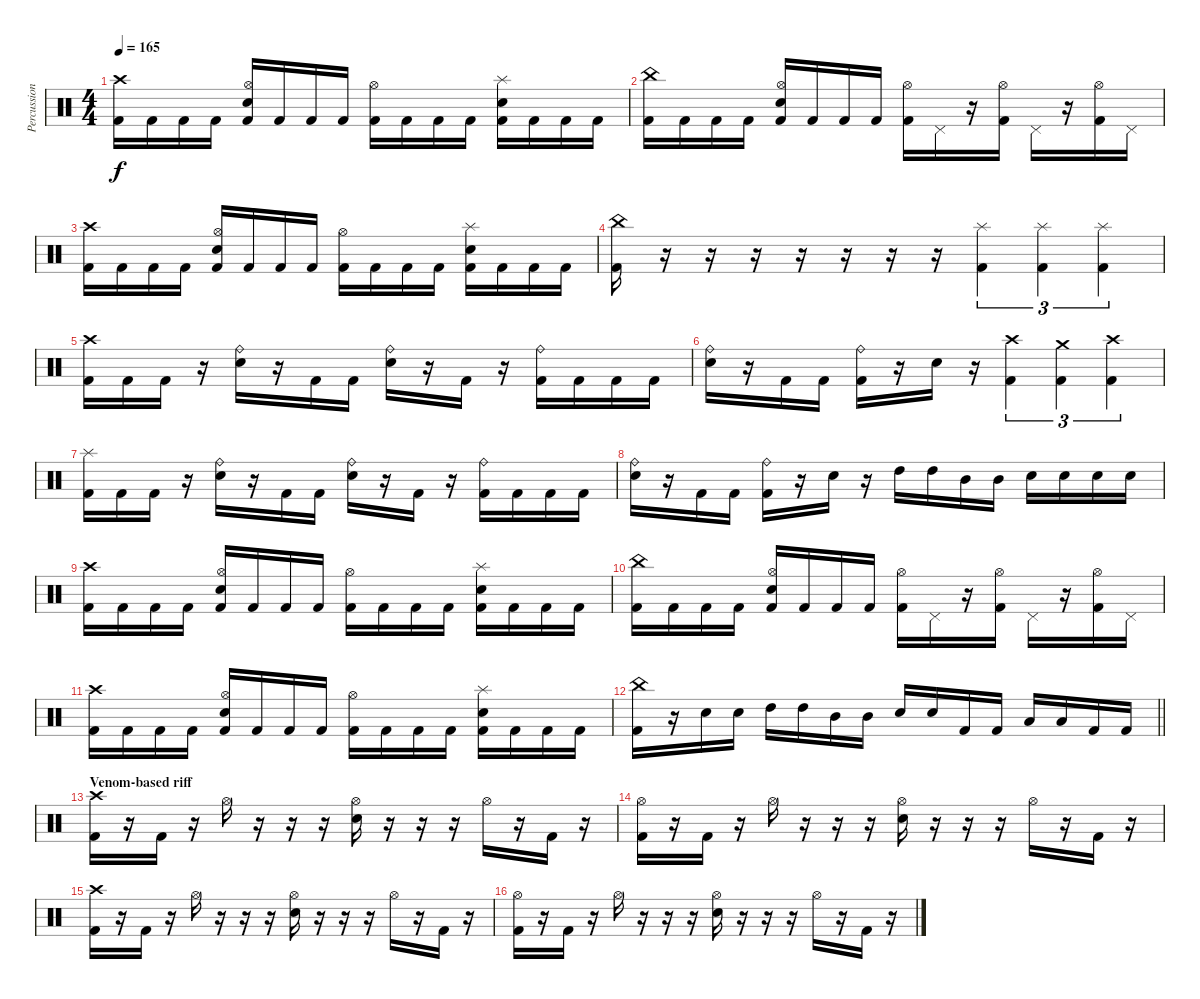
\track ("Percussion" "Percussion") {instrument percussion}
\staff {score}
\articulation defaults
\ts (4 4)
\tempo 165
\clef neutral
\ks c
("Crash high (hit)" "Kick (hit) 2").16{dy f} "Kick (hit) 2".16 "Kick (hit) 2".16 "Kick (hit) 2".16 ("Hi-Hat (open)" "Snare (hit) 2" "Kick (hit) 2").16 "Kick (hit) 2".16 "Kick (hit) 2".16 "Kick (hit) 2".16 ("Hi-Hat (open)" "Kick (hit) 2").16 "Kick (hit) 2".16 "Kick (hit) 2".16 "Kick (hit) 2".16 ("Splash (hit)" "Snare (hit) 2" "Kick (hit) 2").16 "Kick (hit) 2".16 "Kick (hit) 2".16 "Kick (hit) 2".16 |
("China (hit)" "Kick (hit) 2").16 "Kick (hit) 2".16 "Kick (hit) 2".16 "Kick (hit) 2".16 ("Hi-Hat (open)" "Snare (hit) 2" "Kick (hit) 2").16 "Kick (hit) 2".16 "Kick (hit) 2".16 "Kick (hit) 2".16 ("Hi-Hat (open)" "Kick (hit) 2").16 "Pedal Hi-Hat (hit)".16 r.16 ("Hi-Hat (open)" "Kick (hit) 2").16 "Pedal Hi-Hat (hit)".16 r.16 ("Hi-Hat (open)" "Kick (hit) 2").16 "Pedal Hi-Hat (hit)".16 |
("Crash high (hit)" "Kick (hit) 2").16 "Kick (hit) 2".16 "Kick (hit) 2".16 "Kick (hit) 2".16 ("Hi-Hat (open)" "Snare (hit) 2" "Kick (hit) 2").16 "Kick (hit) 2".16 "Kick (hit) 2".16 "Kick (hit) 2".16 ("Hi-Hat (open)" "Kick (hit) 2").16 "Kick (hit) 2".16 "Kick (hit) 2".16 "Kick (hit) 2".16 ("Splash (hit)" "Snare (hit) 2" "Kick (hit) 2").16 "Kick (hit) 2".16 "Kick (hit) 2".16 "Kick (hit) 2".16 |
("China (hit)" "Kick (hit) 2").16 r.16 r.16 r.16 r.16 r.16 r.16 r.16 ("Splash (hit)" "Kick (hit) 2").4{tu (3 2)} ("Splash (hit)" "Kick (hit) 2").4{tu (3 2)} ("Splash (hit)" "Kick (hit) 2").4{tu (3 2)} |
("Crash high (hit)" "Kick (hit) 2").16 "Kick (hit) 2".16 "Kick (hit) 2".16 r.16 ("Ride (bell)" "Snare (hit) 2").16 r.16 "Kick (hit) 2".16 "Kick (hit) 2".16 ("Ride (bell)" "Snare (hit) 2").16 r.16 "Kick (hit) 2".16 r.16 ("Ride (bell)" "Kick (hit) 2").16 "Kick (hit) 2".16 "Kick (hit) 2".16 "Kick (hit) 2".16 |
("Ride (bell)" "Snare (hit) 2").16 r.16 "Kick (hit) 2".16 "Kick (hit) 2".16 ("Ride (bell)" "Kick (hit) 2").16 r.16 "Snare (hit) 2".16 r.16 ("Crash high (hit)" "Kick (hit) 2").4{tu (3 2)} ("Crash medium (hit)" "Kick (hit) 2").4{tu (3 2)} ("Crash high (hit)" "Kick (hit) 2").4{tu (3 2)} |
("Splash (hit)" "Kick (hit) 2").16 "Kick (hit) 2".16 "Kick (hit) 2".16 r.16 ("Ride (bell)" "Snare (hit) 2").16 r.16 "Kick (hit) 2".16 "Kick (hit) 2".16 ("Ride (bell)" "Snare (hit) 2").16 r.16 "Kick (hit) 2".16 r.16 ("Ride (bell)" "Kick (hit) 2").16 "Kick (hit) 2".16 "Kick (hit) 2".16 "Kick (hit) 2".16 |
("Ride (bell)" "Snare (hit) 2").16 r.16 "Kick (hit) 2".16 "Kick (hit) 2".16 ("Ride (bell)" "Kick (hit) 2").16 r.16 "Snare (hit) 2".16 r.16 "High Tom (hit)".16 "High Tom (hit)".16 "Mid Tom (hit)".16 "Mid Tom (hit)".16 "Snare (hit) 2".16 "Snare (hit) 2".16 "Snare (hit) 2".16 "Snare (hit) 2".16 |
("Crash high (hit)" "Kick (hit) 2").16 "Kick (hit) 2".16 "Kick (hit) 2".16 "Kick (hit) 2".16 ("Hi-Hat (open)" "Snare (hit) 2" "Kick (hit) 2").16 "Kick (hit) 2".16 "Kick (hit) 2".16 "Kick (hit) 2".16 ("Hi-Hat (open)" "Kick (hit) 2").16 "Kick (hit) 2".16 "Kick (hit) 2".16 "Kick (hit) 2".16 ("Splash (hit)" "Snare (hit) 2" "Kick (hit) 2").16 "Kick (hit) 2".16 "Kick (hit) 2".16 "Kick (hit) 2".16 |
("China (hit)" "Kick (hit) 2").16 "Kick (hit) 2".16 "Kick (hit) 2".16 "Kick (hit) 2".16 ("Hi-Hat (open)" "Snare (hit) 2" "Kick (hit) 2").16 "Kick (hit) 2".16 "Kick (hit) 2".16 "Kick (hit) 2".16 ("Hi-Hat (open)" "Kick (hit) 2").16 "Pedal Hi-Hat (hit)".16 r.16 ("Hi-Hat (open)" "Kick (hit) 2").16 "Pedal Hi-Hat (hit)".16 r.16 ("Hi-Hat (open)" "Kick (hit) 2").16 "Pedal Hi-Hat (hit)".16 |
("Crash high (hit)" "Kick (hit) 2").16 "Kick (hit) 2".16 "Kick (hit) 2".16 "Kick (hit) 2".16 ("Hi-Hat (open)" "Snare (hit) 2" "Kick (hit) 2").16 "Kick (hit) 2".16 "Kick (hit) 2".16 "Kick (hit) 2".16 ("Hi-Hat (open)" "Kick (hit) 2").16 "Kick (hit) 2".16 "Kick (hit) 2".16 "Kick (hit) 2".16 ("Splash (hit)" "Snare (hit) 2" "Kick (hit) 2").16 "Kick (hit) 2".16 "Kick (hit) 2".16 "Kick (hit) 2".16 |
\barLineRight lightlight
("China (hit)" "Kick (hit) 2").16 r.16 "Snare (hit) 2".16 "Snare (hit) 2".16 "High Tom (hit)".16 "High Tom (hit)".16 "Mid Tom (hit)".16 "Mid Tom (hit)".16 "Snare (hit) 2".16 "Snare (hit) 2".16 "Kick (hit) 2".16 "Kick (hit) 2".16 "Low Tom (hit)".16 "Low Tom (hit)".16 "Kick (hit) 2".16 "Kick (hit) 2".16 |
\section ("" "Venom-based riff")
("Crash high (hit)" "Kick (hit) 2").16 r.16 "Kick (hit) 2".16 r.16 "Hi-Hat (open)".16 r.16 r.16 r.16 ("Hi-Hat (open)" "Snare (hit) 2").16 r.16 r.16 r.16 "Hi-Hat (open)".16 r.16 "Kick (hit) 2".16 r.16 |
("Hi-Hat (open)" "Kick (hit) 2").16 r.16 "Kick (hit) 2".16 r.16 "Hi-Hat (open)".16 r.16 r.16 r.16 ("Hi-Hat (open)" "Snare (hit) 2").16 r.16 r.16 r.16 "Hi-Hat (open)".16 r.16 "Kick (hit) 2".16 r.16 |
("Crash high (hit)" "Kick (hit) 2").16 r.16 "Kick (hit) 2".16 r.16 "Hi-Hat (open)".16 r.16 r.16 r.16 ("Hi-Hat (open)" "Snare (hit) 2").16 r.16 r.16 r.16 "Hi-Hat (open)".16 r.16 "Kick (hit) 2".16 r.16 |
("Hi-Hat (open)" "Kick (hit) 2").16 r.16 "Kick (hit) 2".16 r.16 "Hi-Hat (open)".16 r.16 r.16 r.16 ("Hi-Hat (open)" "Snare (hit) 2").16 r.16 r.16 r.16 "Hi-Hat (open)".16 r.16 "Kick (hit) 2".16 r.16
